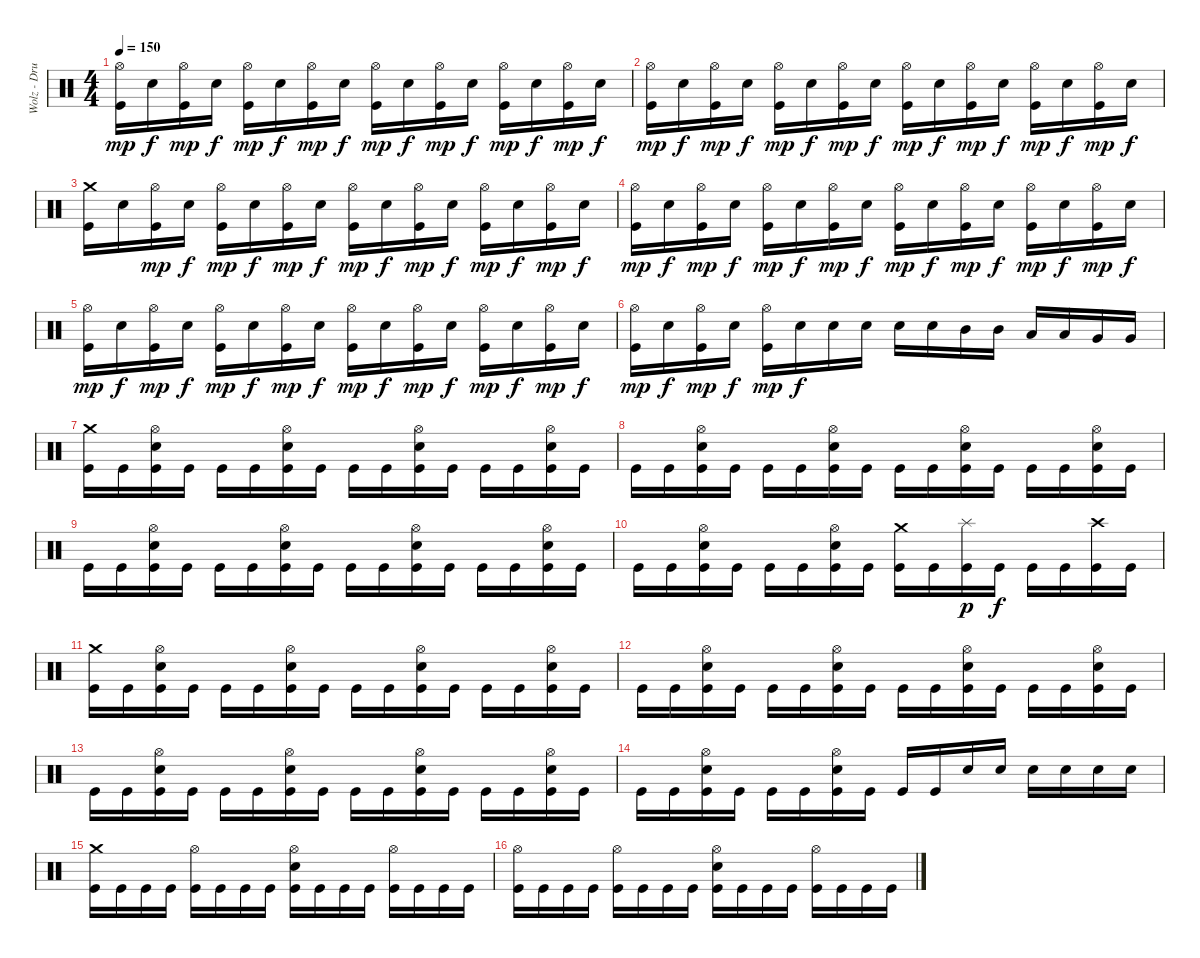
\track ("Wolz - Drums" "Wolz - Dru") {instrument percussion}
\staff {score}
\articulation defaults
\ts (4 4)
\tempo 150
\clef neutral
\ks c
("Hi-Hat (open)" "Kick (hit)").16{dy mp} "Electric Snare (hit)".16{dy f} ("Hi-Hat (open)" "Kick (hit)").16{dy mp} "Electric Snare (hit)".16{dy f} ("Hi-Hat (open)" "Kick (hit)").16{dy mp} "Electric Snare (hit)".16{dy f} ("Hi-Hat (open)" "Kick (hit)").16{dy mp} "Electric Snare (hit)".16{dy f} ("Hi-Hat (open)" "Kick (hit)").16{dy mp} "Electric Snare (hit)".16{dy f} ("Hi-Hat (open)" "Kick (hit)").16{dy mp} "Electric Snare (hit)".16{dy f} ("Hi-Hat (open)" "Kick (hit)").16{dy mp} "Electric Snare (hit)".16{dy f} ("Hi-Hat (open)" "Kick (hit)").16{dy mp} "Electric Snare (hit)".16{dy f} |
("Hi-Hat (open)" "Kick (hit)").16{dy mp} "Electric Snare (hit)".16{dy f} ("Hi-Hat (open)" "Kick (hit)").16{dy mp} "Electric Snare (hit)".16{dy f} ("Hi-Hat (open)" "Kick (hit)").16{dy mp} "Electric Snare (hit)".16{dy f} ("Hi-Hat (open)" "Kick (hit)").16{dy mp} "Electric Snare (hit)".16{dy f} ("Hi-Hat (open)" "Kick (hit)").16{dy mp} "Electric Snare (hit)".16{dy f} ("Hi-Hat (open)" "Kick (hit)").16{dy mp} "Electric Snare (hit)".16{dy f} ("Hi-Hat (open)" "Kick (hit)").16{dy mp} "Electric Snare (hit)".16{dy f} ("Hi-Hat (open)" "Kick (hit)").16{dy mp} "Electric Snare (hit)".16{dy f} |
("Crash medium (hit)" "Kick (hit)").16 "Electric Snare (hit)".16 ("Hi-Hat (open)" "Kick (hit)").16{dy mp} "Electric Snare (hit)".16{dy f} ("Hi-Hat (open)" "Kick (hit)").16{dy mp} "Electric Snare (hit)".16{dy f} ("Hi-Hat (open)" "Kick (hit)").16{dy mp} "Electric Snare (hit)".16{dy f} ("Hi-Hat (open)" "Kick (hit)").16{dy mp} "Electric Snare (hit)".16{dy f} ("Hi-Hat (open)" "Kick (hit)").16{dy mp} "Electric Snare (hit)".16{dy f} ("Hi-Hat (open)" "Kick (hit)").16{dy mp} "Electric Snare (hit)".16{dy f} ("Hi-Hat (open)" "Kick (hit)").16{dy mp} "Electric Snare (hit)".16{dy f} |
("Hi-Hat (open)" "Kick (hit)").16{dy mp} "Electric Snare (hit)".16{dy f} ("Hi-Hat (open)" "Kick (hit)").16{dy mp} "Electric Snare (hit)".16{dy f} ("Hi-Hat (open)" "Kick (hit)").16{dy mp} "Electric Snare (hit)".16{dy f} ("Hi-Hat (open)" "Kick (hit)").16{dy mp} "Electric Snare (hit)".16{dy f} ("Hi-Hat (open)" "Kick (hit)").16{dy mp} "Electric Snare (hit)".16{dy f} ("Hi-Hat (open)" "Kick (hit)").16{dy mp} "Electric Snare (hit)".16{dy f} ("Hi-Hat (open)" "Kick (hit)").16{dy mp} "Electric Snare (hit)".16{dy f} ("Hi-Hat (open)" "Kick (hit)").16{dy mp} "Electric Snare (hit)".16{dy f} |
("Hi-Hat (open)" "Kick (hit)").16{dy mp} "Electric Snare (hit)".16{dy f} ("Hi-Hat (open)" "Kick (hit)").16{dy mp} "Electric Snare (hit)".16{dy f} ("Hi-Hat (open)" "Kick (hit)").16{dy mp} "Electric Snare (hit)".16{dy f} ("Hi-Hat (open)" "Kick (hit)").16{dy mp} "Electric Snare (hit)".16{dy f} ("Hi-Hat (open)" "Kick (hit)").16{dy mp} "Electric Snare (hit)".16{dy f} ("Hi-Hat (open)" "Kick (hit)").16{dy mp} "Electric Snare (hit)".16{dy f} ("Hi-Hat (open)" "Kick (hit)").16{dy mp} "Electric Snare (hit)".16{dy f} ("Hi-Hat (open)" "Kick (hit)").16{dy mp} "Electric Snare (hit)".16{dy f} |
("Hi-Hat (open)" "Kick (hit)").16{dy mp} "Electric Snare (hit)".16{dy f} ("Hi-Hat (open)" "Kick (hit)").16{dy mp} "Electric Snare (hit)".16{dy f} ("Hi-Hat (open)" "Kick (hit)").16{dy mp} "Electric Snare (hit)".16{dy f} "Electric Snare (hit)".16 "Electric Snare (hit)".16 "Electric Snare (hit)".16 "Electric Snare (hit)".16 "Mid Tom (hit)".16 "Mid Tom (hit)".16 "Low Tom (hit)".16 "Low Tom (hit)".16 "Very Low Tom (hit)".16 "Very Low Tom (hit)".16 |
("Crash medium (hit)" "Kick (hit)").16 "Kick (hit)".16 ("Hi-Hat (open)" "Electric Snare (hit)" "Kick (hit)").16 "Kick (hit)".16 "Kick (hit)".16 "Kick (hit)".16 ("Hi-Hat (open)" "Electric Snare (hit)" "Kick (hit)").16 "Kick (hit)".16 "Kick (hit)".16 "Kick (hit)".16 ("Hi-Hat (open)" "Electric Snare (hit)" "Kick (hit)").16 "Kick (hit)".16 "Kick (hit)".16 "Kick (hit)".16 ("Hi-Hat (open)" "Electric Snare (hit)" "Kick (hit)").16 "Kick (hit)".16 |
"Kick (hit)".16 "Kick (hit)".16 ("Hi-Hat (open)" "Electric Snare (hit)" "Kick (hit)").16 "Kick (hit)".16 "Kick (hit)".16 "Kick (hit)".16 ("Hi-Hat (open)" "Electric Snare (hit)" "Kick (hit)").16 "Kick (hit)".16 "Kick (hit)".16 "Kick (hit)".16 ("Hi-Hat (open)" "Electric Snare (hit)" "Kick (hit)").16 "Kick (hit)".16 "Kick (hit)".16 "Kick (hit)".16 ("Hi-Hat (open)" "Electric Snare (hit)" "Kick (hit)").16 "Kick (hit)".16 |
"Kick (hit)".16 "Kick (hit)".16 ("Hi-Hat (open)" "Electric Snare (hit)" "Kick (hit)").16 "Kick (hit)".16 "Kick (hit)".16 "Kick (hit)".16 ("Hi-Hat (open)" "Electric Snare (hit)" "Kick (hit)").16 "Kick (hit)".16 "Kick (hit)".16 "Kick (hit)".16 ("Hi-Hat (open)" "Electric Snare (hit)" "Kick (hit)").16 "Kick (hit)".16 "Kick (hit)".16 "Kick (hit)".16 ("Hi-Hat (open)" "Electric Snare (hit)" "Kick (hit)").16 "Kick (hit)".16 |
"Kick (hit)".16 "Kick (hit)".16 ("Hi-Hat (open)" "Electric Snare (hit)" "Kick (hit)").16 "Kick (hit)".16 "Kick (hit)".16 "Kick (hit)".16 ("Hi-Hat (open)" "Electric Snare (hit)" "Kick (hit)").16 "Kick (hit)".16 ("Crash medium (hit)" "Kick (hit)").16 "Kick (hit)".16 ("Splash (hit)" "Kick (hit)").16{dy p} "Kick (hit)".16{dy f} "Kick (hit)".16 "Kick (hit)".16 ("Crash high (hit)" "Kick (hit)").16 "Kick (hit)".16 |
("Crash medium (hit)" "Kick (hit)").16 "Kick (hit)".16 ("Hi-Hat (open)" "Electric Snare (hit)" "Kick (hit)").16 "Kick (hit)".16 "Kick (hit)".16 "Kick (hit)".16 ("Hi-Hat (open)" "Electric Snare (hit)" "Kick (hit)").16 "Kick (hit)".16 "Kick (hit)".16 "Kick (hit)".16 ("Hi-Hat (open)" "Electric Snare (hit)" "Kick (hit)").16 "Kick (hit)".16 "Kick (hit)".16 "Kick (hit)".16 ("Hi-Hat (open)" "Electric Snare (hit)" "Kick (hit)").16 "Kick (hit)".16 |
"Kick (hit)".16 "Kick (hit)".16 ("Hi-Hat (open)" "Electric Snare (hit)" "Kick (hit)").16 "Kick (hit)".16 "Kick (hit)".16 "Kick (hit)".16 ("Hi-Hat (open)" "Electric Snare (hit)" "Kick (hit)").16 "Kick (hit)".16 "Kick (hit)".16 "Kick (hit)".16 ("Hi-Hat (open)" "Electric Snare (hit)" "Kick (hit)").16 "Kick (hit)".16 "Kick (hit)".16 "Kick (hit)".16 ("Hi-Hat (open)" "Electric Snare (hit)" "Kick (hit)").16 "Kick (hit)".16 |
"Kick (hit)".16 "Kick (hit)".16 ("Hi-Hat (open)" "Electric Snare (hit)" "Kick (hit)").16 "Kick (hit)".16 "Kick (hit)".16 "Kick (hit)".16 ("Hi-Hat (open)" "Electric Snare (hit)" "Kick (hit)").16 "Kick (hit)".16 "Kick (hit)".16 "Kick (hit)".16 ("Hi-Hat (open)" "Electric Snare (hit)" "Kick (hit)").16 "Kick (hit)".16 "Kick (hit)".16 "Kick (hit)".16 ("Hi-Hat (open)" "Electric Snare (hit)" "Kick (hit)").16 "Kick (hit)".16 |
"Kick (hit)".16 "Kick (hit)".16 ("Hi-Hat (open)" "Electric Snare (hit)" "Kick (hit)").16 "Kick (hit)".16 "Kick (hit)".16 "Kick (hit)".16 ("Hi-Hat (open)" "Electric Snare (hit)" "Kick (hit)").16 "Kick (hit)".16 "Kick (hit)".16 "Kick (hit)".16 "Electric Snare (hit)".16 "Electric Snare (hit)".16 "Electric Snare (hit)".16 "Electric Snare (hit)".16 "Electric Snare (hit)".16 "Electric Snare (hit)".16 |
("Crash medium (hit)" "Kick (hit)").16 "Kick (hit)".16 "Kick (hit)".16 "Kick (hit)".16 ("Hi-Hat (open)" "Kick (hit)").16 "Kick (hit)".16 "Kick (hit)".16 "Kick (hit)".16 ("Hi-Hat (open)" "Electric Snare (hit)" "Kick (hit)").16 "Kick (hit)".16 "Kick (hit)".16 "Kick (hit)".16 ("Hi-Hat (open)" "Kick (hit)").16 "Kick (hit)".16 "Kick (hit)".16 "Kick (hit)".16 |
("Hi-Hat (open)" "Kick (hit)").16 "Kick (hit)".16 "Kick (hit)".16 "Kick (hit)".16 ("Hi-Hat (open)" "Kick (hit)").16 "Kick (hit)".16 "Kick (hit)".16 "Kick (hit)".16 ("Hi-Hat (open)" "Electric Snare (hit)" "Kick (hit)").16 "Kick (hit)".16 "Kick (hit)".16 "Kick (hit)".16 ("Hi-Hat (open)" "Kick (hit)").16 "Kick (hit)".16 "Kick (hit)".16 "Kick (hit)".16
